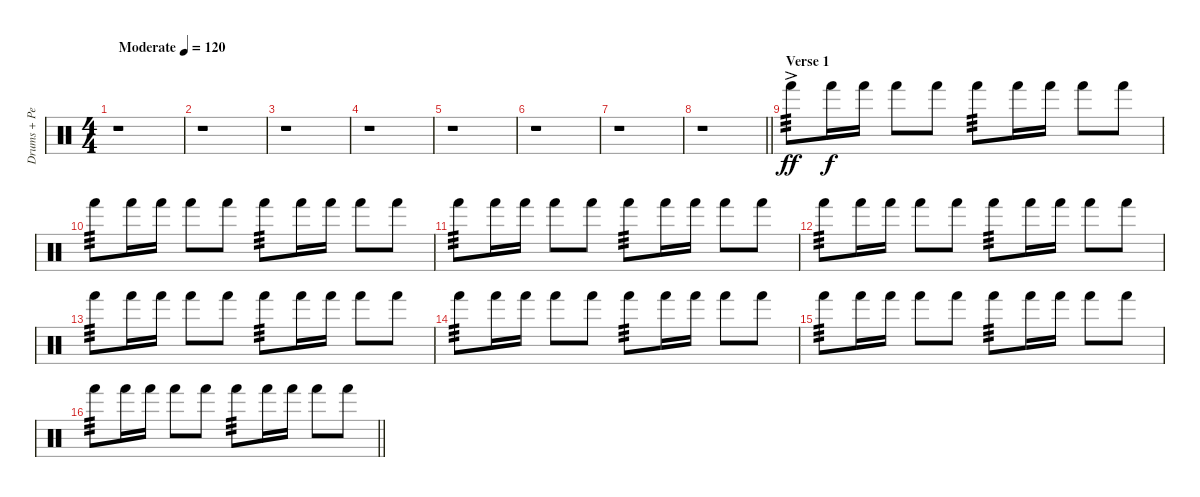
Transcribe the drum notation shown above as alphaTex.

\track ("Drums + Percussion" "Drums + Pe") {instrument percussion}
\staff {score}
\articulation defaults
\ts (4 4)
\tempo (120 "Moderate")
\clef neutral
\ks c
r.1{dy ff} |
r.1 |
r.1 |
r.1 |
r.1 |
r.1 |
r.1 |
\barLineRight lightlight
r.1 |
\section ("" "Verse 1")
"Hand (hit)"{ac}.8{tp 3} "Hand (hit)".16{dy f} "Hand (hit)".16 "Hand (hit)".8 "Hand (hit)".8 "Hand (hit)".8{tp 3} "Hand (hit)".16 "Hand (hit)".16 "Hand (hit)".8 "Hand (hit)".8 |
"Hand (hit)".8{tp 3} "Hand (hit)".16 "Hand (hit)".16 "Hand (hit)".8 "Hand (hit)".8 "Hand (hit)".8{tp 3} "Hand (hit)".16 "Hand (hit)".16 "Hand (hit)".8 "Hand (hit)".8 |
"Hand (hit)".8{tp 3} "Hand (hit)".16 "Hand (hit)".16 "Hand (hit)".8 "Hand (hit)".8 "Hand (hit)".8{tp 3} "Hand (hit)".16 "Hand (hit)".16 "Hand (hit)".8 "Hand (hit)".8 |
"Hand (hit)".8{tp 3} "Hand (hit)".16 "Hand (hit)".16 "Hand (hit)".8 "Hand (hit)".8 "Hand (hit)".8{tp 3} "Hand (hit)".16 "Hand (hit)".16 "Hand (hit)".8 "Hand (hit)".8 |
"Hand (hit)".8{tp 3} "Hand (hit)".16 "Hand (hit)".16 "Hand (hit)".8 "Hand (hit)".8 "Hand (hit)".8{tp 3} "Hand (hit)".16 "Hand (hit)".16 "Hand (hit)".8 "Hand (hit)".8 |
"Hand (hit)".8{tp 3} "Hand (hit)".16 "Hand (hit)".16 "Hand (hit)".8 "Hand (hit)".8 "Hand (hit)".8{tp 3} "Hand (hit)".16 "Hand (hit)".16 "Hand (hit)".8 "Hand (hit)".8 |
"Hand (hit)".8{tp 3} "Hand (hit)".16 "Hand (hit)".16 "Hand (hit)".8 "Hand (hit)".8 "Hand (hit)".8{tp 3} "Hand (hit)".16 "Hand (hit)".16 "Hand (hit)".8 "Hand (hit)".8 |
\barLineRight lightlight "Hand (hit)".8{tp 3} "Hand (hit)".16 "Hand (hit)".16 "Hand (hit)".8 "Hand (hit)".8 "Hand (hit)".8{tp 3} "Hand (hit)".16 "Hand (hit)".16 "Hand (hit)".8 "Hand (hit)".8
